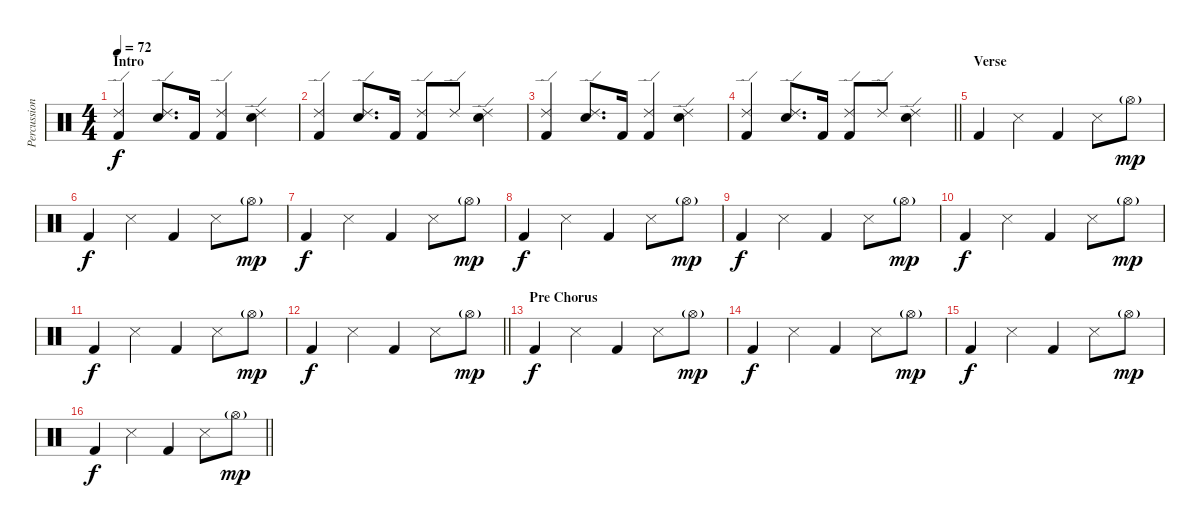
\track ("Percussion" "Percussion") {instrument percussion}
\staff {score}
\articulation defaults
\ts (4 4)
\section ("" "Intro")
\tempo 72
\clef neutral
\ks c
("Ride (edge) 2" "Kick (hit) 2").4{dy f} ("Ride (edge) 2" "Electric Snare (hit)").8{d} "Kick (hit) 2".16 ("Ride (edge) 2" "Kick (hit) 2").4 ("Ride (edge) 2" "Electric Snare (hit)").4 |
("Ride (edge) 2" "Kick (hit) 2").4 ("Ride (edge) 2" "Electric Snare (hit)").8{d} "Kick (hit) 2".16 ("Ride (edge) 2" "Kick (hit) 2").8 "Ride (edge) 2".8 ("Ride (edge) 2" "Electric Snare (hit)").4 |
("Ride (edge) 2" "Kick (hit) 2").4 ("Ride (edge) 2" "Electric Snare (hit)").8{d} "Kick (hit) 2".16 ("Ride (edge) 2" "Kick (hit) 2").4 ("Ride (edge) 2" "Electric Snare (hit)").4 |
\barLineRight lightlight
("Ride (edge) 2" "Kick (hit) 2").4 ("Ride (edge) 2" "Electric Snare (hit)").8{d} "Kick (hit) 2".16 ("Ride (edge) 2" "Kick (hit) 2").8 "Ride (edge) 2".8 ("Ride (edge) 2" "Electric Snare (hit)").4 |
\section ("" "Verse")
"Kick (hit) 2".4 "Metronome (hit)".4 "Kick (hit) 2".4 "Metronome (hit)".8 "Hi-Hat (open)"{g}.8{dy mp} |
"Kick (hit) 2".4{dy f} "Metronome (hit)".4 "Kick (hit) 2".4 "Metronome (hit)".8 "Hi-Hat (open)"{g}.8{dy mp} |
"Kick (hit) 2".4{dy f} "Metronome (hit)".4 "Kick (hit) 2".4 "Metronome (hit)".8 "Hi-Hat (open)"{g}.8{dy mp} |
"Kick (hit) 2".4{dy f} "Metronome (hit)".4 "Kick (hit) 2".4 "Metronome (hit)".8 "Hi-Hat (open)"{g}.8{dy mp} |
"Kick (hit) 2".4{dy f} "Metronome (hit)".4 "Kick (hit) 2".4 "Metronome (hit)".8 "Hi-Hat (open)"{g}.8{dy mp} |
"Kick (hit) 2".4{dy f} "Metronome (hit)".4 "Kick (hit) 2".4 "Metronome (hit)".8 "Hi-Hat (open)"{g}.8{dy mp} |
"Kick (hit) 2".4{dy f} "Metronome (hit)".4 "Kick (hit) 2".4 "Metronome (hit)".8 "Hi-Hat (open)"{g}.8{dy mp} |
\barLineRight lightlight "Kick (hit) 2".4{dy f} "Metronome (hit)".4 "Kick (hit) 2".4 "Metronome (hit)".8 "Hi-Hat (open)"{g}.8{dy mp}
|
\section ("" "Pre Chorus")
"Kick (hit) 2".4{dy f} "Metronome (hit)".4 "Kick (hit) 2".4 "Metronome (hit)".8 "Hi-Hat (open)"{g}.8{dy mp} |
"Kick (hit) 2".4{dy f} "Metronome (hit)".4 "Kick (hit) 2".4 "Metronome (hit)".8 "Hi-Hat (open)"{g}.8{dy mp} |
"Kick (hit) 2".4{dy f} "Metronome (hit)".4 "Kick (hit) 2".4 "Metronome (hit)".8 "Hi-Hat (open)"{g}.8{dy mp} |
\barLineRight lightlight "Kick (hit) 2".4{dy f} "Metronome (hit)".4 "Kick (hit) 2".4 "Metronome (hit)".8 "Hi-Hat (open)"{g}.8{dy mp}
